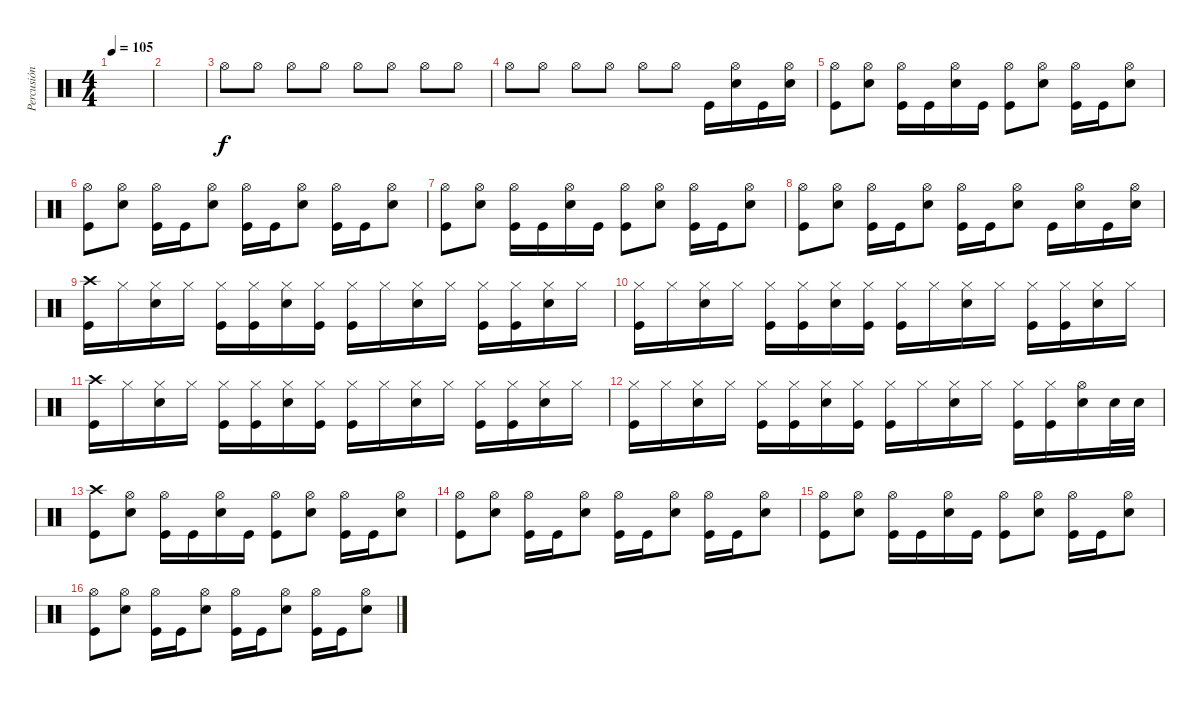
\track ("Percusión" "Percusión") {instrument percussion}
\staff {score}
\articulation defaults
\ts (4 4)
\tempo 105
\clef neutral
\ks c
|
|
"Hi-Hat (open)".8 "Hi-Hat (open)".8 "Hi-Hat (open)".8 "Hi-Hat (open)".8 "Hi-Hat (open)".8 "Hi-Hat (open)".8 "Hi-Hat (open)".8 "Hi-Hat (open)".8 |
"Hi-Hat (open)".8 "Hi-Hat (open)".8 "Hi-Hat (open)".8 "Hi-Hat (open)".8 "Hi-Hat (open)".8 "Hi-Hat (open)".8 "Kick (hit)".16 ("Electric Snare (hit)" "Hi-Hat (open)").16 "Kick (hit)".16 ("Electric Snare (hit)" "Hi-Hat (open)").16 |
("Hi-Hat (open)" "Kick (hit)").8 ("Hi-Hat (open)" "Electric Snare (hit)").8 ("Hi-Hat (open)" "Kick (hit)").16 "Kick (hit)".16 ("Hi-Hat (open)" "Electric Snare (hit)").16 "Kick (hit)".16 ("Hi-Hat (open)" "Kick (hit)").8 ("Electric Snare (hit)" "Hi-Hat (open)").8 ("Hi-Hat (open)" "Kick (hit)").16 "Kick (hit)".16 ("Hi-Hat (open)" "Electric Snare (hit)").8 |
("Kick (hit)" "Hi-Hat (open)").8 ("Electric Snare (hit)" "Hi-Hat (open)").8 ("Kick (hit)" "Hi-Hat (open)").16 "Kick (hit)".16 ("Electric Snare (hit)" "Hi-Hat (open)").8 ("Kick (hit)" "Hi-Hat (open)").16 "Kick (hit)".16 ("Electric Snare (hit)" "Hi-Hat (open)").8 ("Kick (hit)" "Hi-Hat (open)").16 "Kick (hit)".16 ("Hi-Hat (open)" "Electric Snare (hit)").8 |
("Hi-Hat (open)" "Kick (hit)").8 ("Hi-Hat (open)" "Electric Snare (hit)").8 ("Hi-Hat (open)" "Kick (hit)").16 "Kick (hit)".16 ("Hi-Hat (open)" "Electric Snare (hit)").16 "Kick (hit)".16 ("Hi-Hat (open)" "Kick (hit)").8 ("Electric Snare (hit)" "Hi-Hat (open)").8 ("Hi-Hat (open)" "Kick (hit)").16 "Kick (hit)".16 ("Hi-Hat (open)" "Electric Snare (hit)").8 |
("Kick (hit)" "Hi-Hat (open)").8 ("Electric Snare (hit)" "Hi-Hat (open)").8 ("Kick (hit)" "Hi-Hat (open)").16 "Kick (hit)".16 ("Electric Snare (hit)" "Hi-Hat (open)").8 ("Kick (hit)" "Hi-Hat (open)").16 "Kick (hit)".16 ("Electric Snare (hit)" "Hi-Hat (open)").8 "Kick (hit)".16 ("Hi-Hat (open)" "Electric Snare (hit)").16 "Kick (hit)".16 ("Hi-Hat (open)" "Electric Snare (hit)").16 |
("Crash high (hit)" "Kick (hit)").16 "Hi-Hat (closed)".16 ("Hi-Hat (closed)" "Electric Snare (hit)").16 "Hi-Hat (closed)".16 ("Hi-Hat (closed)" "Kick (hit)").16 ("Hi-Hat (closed)" "Kick (hit)").16 ("Hi-Hat (closed)" "Electric Snare (hit)").16 ("Hi-Hat (closed)" "Kick (hit)").16 ("Hi-Hat (closed)" "Kick (hit)").16 "Hi-Hat (closed)".16 ("Hi-Hat (closed)" "Electric Snare (hit)").16 "Hi-Hat (closed)".16 ("Hi-Hat (closed)" "Kick (hit)").16 ("Hi-Hat (closed)" "Kick (hit)").16 ("Hi-Hat (closed)" "Electric Snare (hit)").16 "Hi-Hat (closed)".16 |
("Hi-Hat (closed)" "Kick (hit)").16 "Hi-Hat (closed)".16 ("Hi-Hat (closed)" "Electric Snare (hit)").16 "Hi-Hat (closed)".16 ("Hi-Hat (closed)" "Kick (hit)").16 ("Hi-Hat (closed)" "Kick (hit)").16 ("Hi-Hat (closed)" "Electric Snare (hit)").16 ("Hi-Hat (closed)" "Kick (hit)").16 ("Hi-Hat (closed)" "Kick (hit)").16 "Hi-Hat (closed)".16 ("Hi-Hat (closed)" "Electric Snare (hit)").16 "Hi-Hat (closed)".16 ("Hi-Hat (closed)" "Kick (hit)").16 ("Hi-Hat (closed)" "Kick (hit)").16 ("Hi-Hat (closed)" "Electric Snare (hit)").16 "Hi-Hat (closed)".16 |
("Crash high (hit)" "Kick (hit)").16 "Hi-Hat (closed)".16 ("Hi-Hat (closed)" "Electric Snare (hit)").16 "Hi-Hat (closed)".16 ("Hi-Hat (closed)" "Kick (hit)").16 ("Hi-Hat (closed)" "Kick (hit)").16 ("Hi-Hat (closed)" "Electric Snare (hit)").16 ("Hi-Hat (closed)" "Kick (hit)").16 ("Hi-Hat (closed)" "Kick (hit)").16 "Hi-Hat (closed)".16 ("Hi-Hat (closed)" "Electric Snare (hit)").16 "Hi-Hat (closed)".16 ("Hi-Hat (closed)" "Kick (hit)").16 ("Hi-Hat (closed)" "Kick (hit)").16 ("Hi-Hat (closed)" "Electric Snare (hit)").16 "Hi-Hat (closed)".16 |
("Hi-Hat (closed)" "Kick (hit)").16 "Hi-Hat (closed)".16 ("Hi-Hat (closed)" "Electric Snare (hit)").16 "Hi-Hat (closed)".16 ("Hi-Hat (closed)" "Kick (hit)").16 ("Hi-Hat (closed)" "Kick (hit)").16 ("Hi-Hat (closed)" "Electric Snare (hit)").16 ("Hi-Hat (closed)" "Kick (hit)").16 ("Hi-Hat (closed)" "Kick (hit)").16 "Hi-Hat (closed)".16 ("Hi-Hat (closed)" "Electric Snare (hit)").16 "Hi-Hat (closed)".16 ("Hi-Hat (closed)" "Kick (hit)").16 ("Hi-Hat (closed)" "Kick (hit)").16 ("Hi-Hat (open)" "Electric Snare (hit)").16 "Electric Snare (hit)".32 "Electric Snare (hit)".32 |
("Crash high (hit)" "Kick (hit)").8 ("Hi-Hat (open)" "Electric Snare (hit)").8 ("Hi-Hat (open)" "Kick (hit)").16 "Kick (hit)".16 ("Hi-Hat (open)" "Electric Snare (hit)").16 "Kick (hit)".16 ("Hi-Hat (open)" "Kick (hit)").8 ("Electric Snare (hit)" "Hi-Hat (open)").8 ("Hi-Hat (open)" "Kick (hit)").16 "Kick (hit)".16 ("Hi-Hat (open)" "Electric Snare (hit)").8 |
("Kick (hit)" "Hi-Hat (open)").8 ("Electric Snare (hit)" "Hi-Hat (open)").8 ("Kick (hit)" "Hi-Hat (open)").16 "Kick (hit)".16 ("Electric Snare (hit)" "Hi-Hat (open)").8 ("Kick (hit)" "Hi-Hat (open)").16 "Kick (hit)".16 ("Electric Snare (hit)" "Hi-Hat (open)").8 ("Kick (hit)" "Hi-Hat (open)").16 "Kick (hit)".16 ("Hi-Hat (open)" "Electric Snare (hit)").8 |
("Hi-Hat (open)" "Kick (hit)").8 ("Hi-Hat (open)" "Electric Snare (hit)").8 ("Hi-Hat (open)" "Kick (hit)").16 "Kick (hit)".16 ("Hi-Hat (open)" "Electric Snare (hit)").16 "Kick (hit)".16 ("Hi-Hat (open)" "Kick (hit)").8 ("Electric Snare (hit)" "Hi-Hat (open)").8 ("Hi-Hat (open)" "Kick (hit)").16 "Kick (hit)".16 ("Hi-Hat (open)" "Electric Snare (hit)").8 |
("Kick (hit)" "Hi-Hat (open)").8 ("Electric Snare (hit)" "Hi-Hat (open)").8 ("Kick (hit)" "Hi-Hat (open)").16 "Kick (hit)".16 ("Electric Snare (hit)" "Hi-Hat (open)").8 ("Kick (hit)" "Hi-Hat (open)").16 "Kick (hit)".16 ("Electric Snare (hit)" "Hi-Hat (open)").8 ("Kick (hit)" "Hi-Hat (open)").16 "Kick (hit)".16 ("Hi-Hat (open)" "Electric Snare (hit)").8
